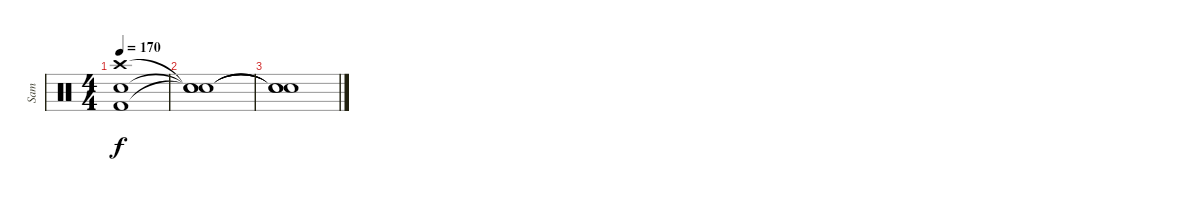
\track ("Sam" "Sam") {instrument percussion}
\staff {score}
\articulation defaults
\ts (4 4)
\tempo 170
\clef neutral
\ks c
("Crash high (hit)" "Snare (hit) 2" "Kick (hit) 2").1{dy f} |
("Snare (hit)"{t} "Snare (hit)"{t} "Snare (hit)"{t}).1 |
("Snare (hit)"{t} "Snare (hit)"{t} "Snare (hit)"{t}).1
